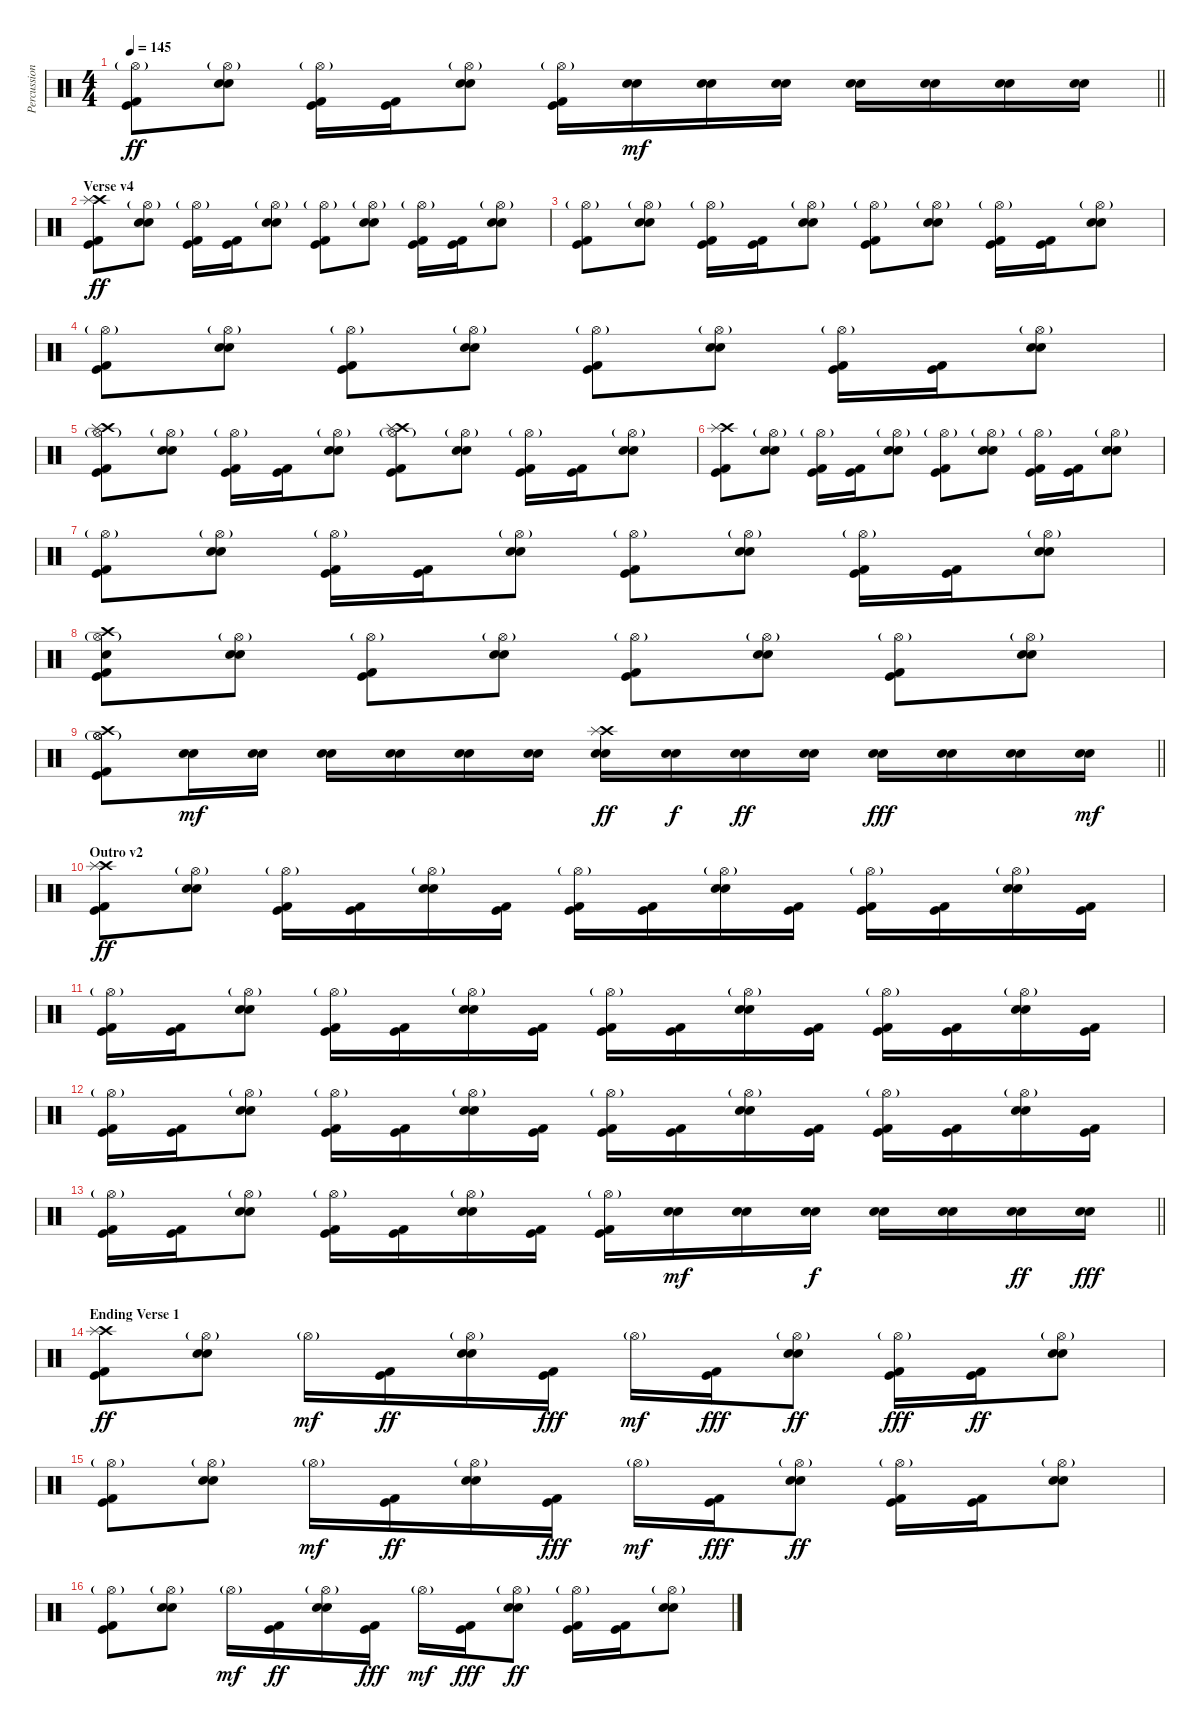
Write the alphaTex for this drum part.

\track ("Percussion" "Percussion") {instrument percussion}
\staff {score}
\articulation defaults
\ts (4 4)
\tempo 145
\clef neutral
\barLineRight lightlight
\ks c
("Hi-Hat (open)"{g} "Kick (hit)" "Kick (hit) 2").8{dy ff} ("Hi-Hat (open)"{g} "Electric Snare (hit)" "Snare (hit) 2").8 ("Hi-Hat (open)"{g} "Kick (hit)" "Kick (hit) 2").16 ("Kick (hit)" "Kick (hit) 2").16 ("Hi-Hat (open)"{g} "Electric Snare (hit)" "Snare (hit) 2").8 ("Hi-Hat (open)"{g} "Kick (hit)" "Kick (hit) 2").16 ("Electric Snare (hit)" "Snare (hit) 2").16{dy mf} ("Electric Snare (hit)" "Snare (hit) 2").16 ("Electric Snare (hit)" "Snare (hit) 2").16 ("Electric Snare (hit)" "Snare (hit) 2").16 ("Electric Snare (hit)" "Snare (hit) 2").16 ("Electric Snare (hit)" "Snare (hit) 2").16 ("Electric Snare (hit)" "Snare (hit) 2").16 |
\section ("" "Verse v4")
("Crash high (hit)" "Splash (hit)" "Kick (hit)" "Kick (hit) 2").8{dy ff} ("Hi-Hat (open)"{g} "Electric Snare (hit)" "Snare (hit) 2").8 ("Hi-Hat (open)"{g} "Kick (hit)" "Kick (hit) 2").16 ("Kick (hit)" "Kick (hit) 2").16 ("Hi-Hat (open)"{g} "Electric Snare (hit)" "Snare (hit) 2").8 ("Hi-Hat (open)"{g} "Kick (hit)" "Kick (hit) 2").8 ("Hi-Hat (open)"{g} "Electric Snare (hit)" "Snare (hit) 2").8 ("Hi-Hat (open)"{g} "Kick (hit)" "Kick (hit) 2").16 ("Kick (hit)" "Kick (hit) 2").16 ("Hi-Hat (open)"{g} "Electric Snare (hit)" "Snare (hit) 2").8 |
("Hi-Hat (open)"{g} "Kick (hit)" "Kick (hit) 2").8 ("Hi-Hat (open)"{g} "Electric Snare (hit)" "Snare (hit) 2").8 ("Hi-Hat (open)"{g} "Kick (hit)" "Kick (hit) 2").16 ("Kick (hit)" "Kick (hit) 2").16 ("Hi-Hat (open)"{g} "Electric Snare (hit)" "Snare (hit) 2").8 ("Hi-Hat (open)"{g} "Kick (hit)" "Kick (hit) 2").8 ("Hi-Hat (open)"{g} "Electric Snare (hit)" "Snare (hit) 2").8 ("Hi-Hat (open)"{g} "Kick (hit)" "Kick (hit) 2").16 ("Kick (hit)" "Kick (hit) 2").16 ("Hi-Hat (open)"{g} "Electric Snare (hit)" "Snare (hit) 2").8 |
("Hi-Hat (open)"{g} "Kick (hit)" "Kick (hit) 2").8 ("Hi-Hat (open)"{g} "Electric Snare (hit)" "Snare (hit) 2").8 ("Hi-Hat (open)"{g} "Kick (hit)" "Kick (hit) 2").8 ("Hi-Hat (open)"{g} "Electric Snare (hit)" "Snare (hit) 2").8 ("Hi-Hat (open)"{g} "Kick (hit)" "Kick (hit) 2").8 ("Hi-Hat (open)"{g} "Electric Snare (hit)" "Snare (hit) 2").8 ("Hi-Hat (open)"{g} "Kick (hit)" "Kick (hit) 2").16 ("Kick (hit)" "Kick (hit) 2").16 ("Hi-Hat (open)"{g} "Electric Snare (hit)" "Snare (hit) 2").8 |
("Hi-Hat (open)"{g} "Crash high (hit)" "Splash (hit)" "Kick (hit)" "Kick (hit) 2").8 ("Hi-Hat (open)"{g} "Electric Snare (hit)" "Snare (hit) 2").8 ("Hi-Hat (open)"{g} "Kick (hit)" "Kick (hit) 2").16 ("Kick (hit)" "Kick (hit) 2").16 ("Hi-Hat (open)"{g} "Electric Snare (hit)" "Snare (hit) 2").8 ("Hi-Hat (open)"{g} "Crash high (hit)" "Splash (hit)" "Kick (hit)" "Kick (hit) 2").8 ("Hi-Hat (open)"{g} "Electric Snare (hit)" "Snare (hit) 2").8 ("Hi-Hat (open)"{g} "Kick (hit)" "Kick (hit) 2").16 ("Kick (hit)" "Kick (hit) 2").16 ("Hi-Hat (open)"{g} "Electric Snare (hit)" "Snare (hit) 2").8 |
("Crash high (hit)" "Splash (hit)" "Kick (hit)" "Kick (hit) 2").8 ("Hi-Hat (open)"{g} "Electric Snare (hit)" "Snare (hit) 2").8 ("Hi-Hat (open)"{g} "Kick (hit)" "Kick (hit) 2").16 ("Kick (hit)" "Kick (hit) 2").16 ("Hi-Hat (open)"{g} "Electric Snare (hit)" "Snare (hit) 2").8 ("Hi-Hat (open)"{g} "Kick (hit)" "Kick (hit) 2").8 ("Hi-Hat (open)"{g} "Electric Snare (hit)" "Snare (hit) 2").8 ("Hi-Hat (open)"{g} "Kick (hit)" "Kick (hit) 2").16 ("Kick (hit)" "Kick (hit) 2").16 ("Hi-Hat (open)"{g} "Electric Snare (hit)" "Snare (hit) 2").8 |
("Hi-Hat (open)"{g} "Kick (hit)" "Kick (hit) 2").8 ("Hi-Hat (open)"{g} "Electric Snare (hit)" "Snare (hit) 2").8 ("Hi-Hat (open)"{g} "Kick (hit)" "Kick (hit) 2").16 ("Kick (hit)" "Kick (hit) 2").16 ("Hi-Hat (open)"{g} "Electric Snare (hit)" "Snare (hit) 2").8 ("Hi-Hat (open)"{g} "Kick (hit)" "Kick (hit) 2").8 ("Hi-Hat (open)"{g} "Electric Snare (hit)" "Snare (hit) 2").8 ("Hi-Hat (open)"{g} "Kick (hit)" "Kick (hit) 2").16 ("Kick (hit)" "Kick (hit) 2").16 ("Hi-Hat (open)"{g} "Electric Snare (hit)" "Snare (hit) 2").8 |
("Hi-Hat (open)"{g} "Crash high (hit)" "Snare (hit) 2" "Kick (hit)" "Kick (hit) 2").8 ("Hi-Hat (open)"{g} "Electric Snare (hit)" "Snare (hit) 2").8 ("Hi-Hat (open)"{g} "Kick (hit)" "Kick (hit) 2").8 ("Hi-Hat (open)"{g} "Electric Snare (hit)" "Snare (hit) 2").8 ("Hi-Hat (open)"{g} "Kick (hit)" "Kick (hit) 2").8 ("Hi-Hat (open)"{g} "Electric Snare (hit)" "Snare (hit) 2").8 ("Hi-Hat (open)"{g} "Kick (hit)" "Kick (hit) 2").8 ("Hi-Hat (open)"{g} "Electric Snare (hit)" "Snare (hit) 2").8 |
\barLineRight lightlight
("Hi-Hat (open)"{g} "Crash high (hit)" "Hi-Hat (open)" "Kick (hit)" "Kick (hit) 2").8 ("Electric Snare (hit)" "Snare (hit) 2").16{dy mf} ("Electric Snare (hit)" "Snare (hit) 2").16 ("Electric Snare (hit)" "Snare (hit) 2").16 ("Electric Snare (hit)" "Snare (hit) 2").16 ("Electric Snare (hit)" "Snare (hit) 2").16 ("Electric Snare (hit)" "Snare (hit) 2").16 ("Crash high (hit)" "Electric Snare (hit)" "Snare (hit) 2" "Splash (hit)").16{dy ff} ("Electric Snare (hit)" "Snare (hit) 2").16{dy f} ("Electric Snare (hit)" "Snare (hit) 2").16{dy ff} ("Electric Snare (hit)" "Snare (hit) 2").16 ("Electric Snare (hit)" "Snare (hit) 2").16{dy fff} ("Electric Snare (hit)" "Snare (hit) 2").16 ("Electric Snare (hit)" "Snare (hit) 2").16 ("Electric Snare (hit)" "Snare (hit) 2").16{dy mf} |
\section ("" "Outro v2")
("Crash high (hit)" "Splash (hit)" "Kick (hit)" "Kick (hit) 2").8{dy ff} ("Hi-Hat (open)"{g} "Electric Snare (hit)" "Snare (hit) 2").8 ("Hi-Hat (open)"{g} "Kick (hit)" "Kick (hit) 2").16 ("Kick (hit)" "Kick (hit) 2").16 ("Hi-Hat (open)"{g} "Electric Snare (hit)" "Snare (hit) 2").16 ("Kick (hit)" "Kick (hit) 2").16 ("Hi-Hat (open)"{g} "Kick (hit)" "Kick (hit) 2").16 ("Kick (hit)" "Kick (hit) 2").16 ("Hi-Hat (open)"{g} "Electric Snare (hit)" "Snare (hit) 2").16 ("Kick (hit)" "Kick (hit) 2").16 ("Hi-Hat (open)"{g} "Kick (hit)" "Kick (hit) 2").16 ("Kick (hit)" "Kick (hit) 2").16 ("Hi-Hat (open)"{g} "Electric Snare (hit)" "Snare (hit) 2").16 ("Kick (hit)" "Kick (hit) 2").16 |
("Hi-Hat (open)"{g} "Kick (hit)" "Kick (hit) 2").16 ("Kick (hit)" "Kick (hit) 2").16 ("Hi-Hat (open)"{g} "Electric Snare (hit)" "Snare (hit) 2").8 ("Hi-Hat (open)"{g} "Kick (hit)" "Kick (hit) 2").16 ("Kick (hit)" "Kick (hit) 2").16 ("Hi-Hat (open)"{g} "Electric Snare (hit)" "Snare (hit) 2").16 ("Kick (hit)" "Kick (hit) 2").16 ("Hi-Hat (open)"{g} "Kick (hit)" "Kick (hit) 2").16 ("Kick (hit)" "Kick (hit) 2").16 ("Hi-Hat (open)"{g} "Electric Snare (hit)" "Snare (hit) 2").16 ("Kick (hit)" "Kick (hit) 2").16 ("Hi-Hat (open)"{g} "Kick (hit)" "Kick (hit) 2").16 ("Kick (hit)" "Kick (hit) 2").16 ("Hi-Hat (open)"{g} "Electric Snare (hit)" "Snare (hit) 2").16 ("Kick (hit)" "Kick (hit) 2").16 |
("Hi-Hat (open)"{g} "Kick (hit)" "Kick (hit) 2").16 ("Kick (hit)" "Kick (hit) 2").16 ("Hi-Hat (open)"{g} "Electric Snare (hit)" "Snare (hit) 2").8 ("Hi-Hat (open)"{g} "Kick (hit)" "Kick (hit) 2").16 ("Kick (hit)" "Kick (hit) 2").16 ("Hi-Hat (open)"{g} "Electric Snare (hit)" "Snare (hit) 2").16 ("Kick (hit)" "Kick (hit) 2").16 ("Hi-Hat (open)"{g} "Kick (hit)" "Kick (hit) 2").16 ("Kick (hit)" "Kick (hit) 2").16 ("Hi-Hat (open)"{g} "Electric Snare (hit)" "Snare (hit) 2").16 ("Kick (hit)" "Kick (hit) 2").16 ("Hi-Hat (open)"{g} "Kick (hit)" "Kick (hit) 2").16 ("Kick (hit)" "Kick (hit) 2").16 ("Hi-Hat (open)"{g} "Electric Snare (hit)" "Snare (hit) 2").16 ("Kick (hit)" "Kick (hit) 2").16 |
\barLineRight lightlight
("Hi-Hat (open)"{g} "Kick (hit)" "Kick (hit) 2").16 ("Kick (hit)" "Kick (hit) 2").16 ("Hi-Hat (open)"{g} "Electric Snare (hit)" "Snare (hit) 2").8 ("Hi-Hat (open)"{g} "Kick (hit)" "Kick (hit) 2").16 ("Kick (hit)" "Kick (hit) 2").16 ("Hi-Hat (open)"{g} "Electric Snare (hit)" "Snare (hit) 2").16 ("Kick (hit)" "Kick (hit) 2").16 ("Hi-Hat (open)"{g} "Kick (hit)" "Kick (hit) 2").16 ("Electric Snare (hit)" "Snare (hit) 2").16{dy mf} ("Electric Snare (hit)" "Snare (hit) 2").16 ("Electric Snare (hit)" "Snare (hit) 2").16{dy f} ("Electric Snare (hit)" "Snare (hit) 2").16 ("Electric Snare (hit)" "Snare (hit) 2").16 ("Electric Snare (hit)" "Snare (hit) 2").16{dy ff} ("Electric Snare (hit)" "Snare (hit) 2").16{dy fff} |
\section ("" "Ending Verse 1")
("Crash high (hit)" "Splash (hit)" "Kick (hit)" "Kick (hit) 2").8{dy ff} ("Hi-Hat (open)"{g} "Electric Snare (hit)" "Snare (hit) 2").8 "Hi-Hat (open)"{g}.16{dy mf} ("Kick (hit)" "Kick (hit) 2").16{dy ff} ("Hi-Hat (open)"{g} "Electric Snare (hit)" "Snare (hit) 2").16 ("Kick (hit)" "Kick (hit) 2").16{dy fff} "Hi-Hat (open)"{g}.16{dy mf} ("Kick (hit)" "Kick (hit) 2").16{dy fff} ("Hi-Hat (open)"{g} "Electric Snare (hit)" "Snare (hit) 2").8{dy ff} ("Hi-Hat (open)"{g} "Kick (hit)" "Kick (hit) 2").16{dy fff} ("Kick (hit)" "Kick (hit) 2").16{dy ff} ("Hi-Hat (open)"{g} "Electric Snare (hit)" "Snare (hit) 2").8 |
("Hi-Hat (open)"{g} "Kick (hit)" "Kick (hit) 2").8 ("Hi-Hat (open)"{g} "Electric Snare (hit)" "Snare (hit) 2").8 "Hi-Hat (open)"{g}.16{dy mf} ("Kick (hit)" "Kick (hit) 2").16{dy ff} ("Hi-Hat (open)"{g} "Electric Snare (hit)" "Snare (hit) 2").16 ("Kick (hit)" "Kick (hit) 2").16{dy fff} "Hi-Hat (open)"{g}.16{dy mf} ("Kick (hit)" "Kick (hit) 2").16{dy fff} ("Hi-Hat (open)"{g} "Electric Snare (hit)" "Snare (hit) 2").8{dy ff} ("Hi-Hat (open)"{g} "Kick (hit)" "Kick (hit) 2").16 ("Kick (hit)" "Kick (hit) 2").16 ("Hi-Hat (open)"{g} "Electric Snare (hit)" "Snare (hit) 2").8 |
("Hi-Hat (open)"{g} "Kick (hit)" "Kick (hit) 2").8 ("Hi-Hat (open)"{g} "Electric Snare (hit)" "Snare (hit) 2").8 "Hi-Hat (open)"{g}.16{dy mf} ("Kick (hit)" "Kick (hit) 2").16{dy ff} ("Hi-Hat (open)"{g} "Electric Snare (hit)" "Snare (hit) 2").16 ("Kick (hit)" "Kick (hit) 2").16{dy fff} "Hi-Hat (open)"{g}.16{dy mf} ("Kick (hit)" "Kick (hit) 2").16{dy fff} ("Hi-Hat (open)"{g} "Electric Snare (hit)" "Snare (hit) 2").8{dy ff} ("Hi-Hat (open)"{g} "Kick (hit)" "Kick (hit) 2").16 ("Kick (hit)" "Kick (hit) 2").16 ("Hi-Hat (open)"{g} "Electric Snare (hit)" "Snare (hit) 2").8
